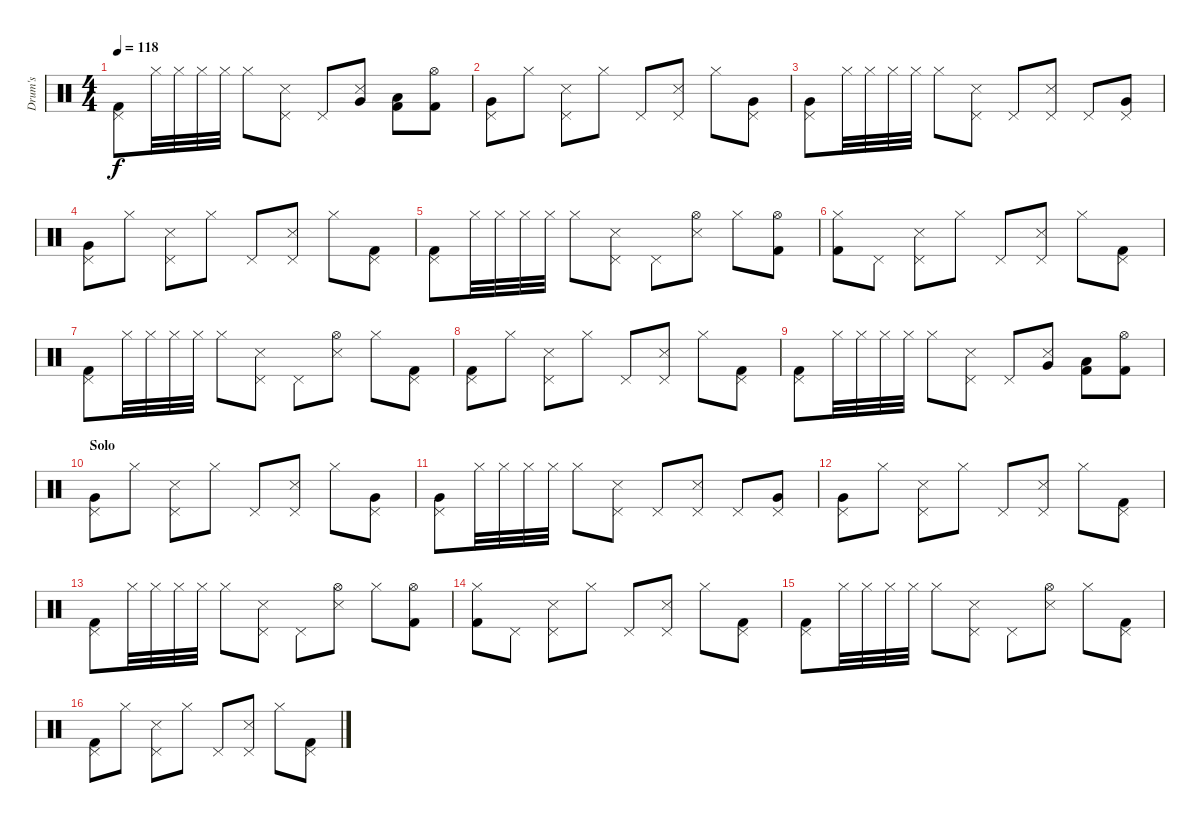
\track ("Drum's" "Drum's") {instrument percussion}
\staff {score}
\articulation defaults
\ts (4 4)
\tempo 118
\clef neutral
\ks c
("Pedal Hi-Hat (hit)" "Kick (hit) 2").8{dy f} "Hi-Hat (closed)".32 "Hi-Hat (closed)".32 "Hi-Hat (closed)".32 "Hi-Hat (closed)".32 "Hi-Hat (closed)".8 ("Pedal Hi-Hat (hit)" "Snare (side stick) 3").8 "Pedal Hi-Hat (hit)".8 ("Snare (side stick) 3" "Very Low Tom (hit)").8 ("Kick (hit) 2" "Low Tom (hit)").8 ("Hi-Hat (open)" "Kick (hit) 2").8 |
("Pedal Hi-Hat (hit)" "Very Low Tom (hit)").8 "Hi-Hat (closed)".8 ("Pedal Hi-Hat (hit)" "Snare (side stick) 3").8 "Hi-Hat (closed)".8 "Pedal Hi-Hat (hit)".8 ("Pedal Hi-Hat (hit)" "Snare (side stick) 3").8 "Hi-Hat (closed)".8 ("Pedal Hi-Hat (hit)" "Very Low Tom (hit)").8 |
("Pedal Hi-Hat (hit)" "Very Low Tom (hit)").8 "Hi-Hat (closed)".32 "Hi-Hat (closed)".32 "Hi-Hat (closed)".32 "Hi-Hat (closed)".32 "Hi-Hat (closed)".8 ("Pedal Hi-Hat (hit)" "Snare (side stick) 3").8 "Pedal Hi-Hat (hit)".8 ("Pedal Hi-Hat (hit)" "Snare (side stick) 3").8 "Pedal Hi-Hat (hit)".8 ("Pedal Hi-Hat (hit)" "Very Low Tom (hit)").8 |
("Pedal Hi-Hat (hit)" "Very Low Tom (hit)").8 "Hi-Hat (closed)".8 ("Pedal Hi-Hat (hit)" "Snare (side stick) 3").8 "Hi-Hat (closed)".8 "Pedal Hi-Hat (hit)".8 ("Pedal Hi-Hat (hit)" "Snare (side stick) 3").8 "Hi-Hat (closed)".8 ("Pedal Hi-Hat (hit)" "Kick (hit) 2").8 |
("Pedal Hi-Hat (hit)" "Kick (hit) 2").8 "Hi-Hat (closed)".32 "Hi-Hat (closed)".32 "Hi-Hat (closed)".32 "Hi-Hat (closed)".32 "Hi-Hat (closed)".8 ("Pedal Hi-Hat (hit)" "Snare (side stick) 3").8 "Pedal Hi-Hat (hit)".8 ("Hi-Hat (open)" "Snare (side stick) 3").8 "Hi-Hat (closed)".8 ("Hi-Hat (open)" "Kick (hit) 2").8 |
("Hi-Hat (closed)" "Kick (hit) 2").8 "Pedal Hi-Hat (hit)".8 ("Pedal Hi-Hat (hit)" "Snare (side stick) 3").8 "Hi-Hat (closed)".8 "Pedal Hi-Hat (hit)".8 ("Pedal Hi-Hat (hit)" "Snare (side stick) 3").8 "Hi-Hat (closed)".8 ("Pedal Hi-Hat (hit)" "Kick (hit) 2").8 |
("Pedal Hi-Hat (hit)" "Kick (hit) 2").8 "Hi-Hat (closed)".32 "Hi-Hat (closed)".32 "Hi-Hat (closed)".32 "Hi-Hat (closed)".32 "Hi-Hat (closed)".8 ("Pedal Hi-Hat (hit)" "Snare (side stick) 3").8 "Pedal Hi-Hat (hit)".8 ("Hi-Hat (open)" "Snare (side stick) 3").8 "Hi-Hat (closed)".8 ("Pedal Hi-Hat (hit)" "Kick (hit) 2").8 |
("Pedal Hi-Hat (hit)" "Kick (hit) 2").8 "Hi-Hat (closed)".8 ("Pedal Hi-Hat (hit)" "Snare (side stick) 3").8 "Hi-Hat (closed)".8 "Pedal Hi-Hat (hit)".8 ("Pedal Hi-Hat (hit)" "Snare (side stick) 3").8 "Hi-Hat (closed)".8 ("Pedal Hi-Hat (hit)" "Kick (hit) 2").8 |
("Pedal Hi-Hat (hit)" "Kick (hit) 2").8 "Hi-Hat (closed)".32 "Hi-Hat (closed)".32 "Hi-Hat (closed)".32 "Hi-Hat (closed)".32 "Hi-Hat (closed)".8 ("Pedal Hi-Hat (hit)" "Snare (side stick) 3").8 "Pedal Hi-Hat (hit)".8 ("Snare (side stick) 3" "Very Low Tom (hit)").8 ("Kick (hit) 2" "Low Tom (hit)").8 ("Hi-Hat (open)" "Kick (hit) 2").8 |
\section ("" "Solo")
("Pedal Hi-Hat (hit)" "Very Low Tom (hit)").8 "Hi-Hat (closed)".8 ("Pedal Hi-Hat (hit)" "Snare (side stick) 3").8 "Hi-Hat (closed)".8 "Pedal Hi-Hat (hit)".8 ("Pedal Hi-Hat (hit)" "Snare (side stick) 3").8 "Hi-Hat (closed)".8 ("Pedal Hi-Hat (hit)" "Very Low Tom (hit)").8 |
("Pedal Hi-Hat (hit)" "Very Low Tom (hit)").8 "Hi-Hat (closed)".32 "Hi-Hat (closed)".32 "Hi-Hat (closed)".32 "Hi-Hat (closed)".32 "Hi-Hat (closed)".8 ("Pedal Hi-Hat (hit)" "Snare (side stick) 3").8 "Pedal Hi-Hat (hit)".8 ("Pedal Hi-Hat (hit)" "Snare (side stick) 3").8 "Pedal Hi-Hat (hit)".8 ("Pedal Hi-Hat (hit)" "Very Low Tom (hit)").8 |
("Pedal Hi-Hat (hit)" "Very Low Tom (hit)").8 "Hi-Hat (closed)".8 ("Pedal Hi-Hat (hit)" "Snare (side stick) 3").8 "Hi-Hat (closed)".8 "Pedal Hi-Hat (hit)".8 ("Pedal Hi-Hat (hit)" "Snare (side stick) 3").8 "Hi-Hat (closed)".8 ("Pedal Hi-Hat (hit)" "Kick (hit) 2").8 |
("Pedal Hi-Hat (hit)" "Kick (hit) 2").8 "Hi-Hat (closed)".32 "Hi-Hat (closed)".32 "Hi-Hat (closed)".32 "Hi-Hat (closed)".32 "Hi-Hat (closed)".8 ("Pedal Hi-Hat (hit)" "Snare (side stick) 3").8 "Pedal Hi-Hat (hit)".8 ("Hi-Hat (open)" "Snare (side stick) 3").8 "Hi-Hat (closed)".8 ("Hi-Hat (open)" "Kick (hit) 2").8 |
("Hi-Hat (closed)" "Kick (hit) 2").8 "Pedal Hi-Hat (hit)".8 ("Pedal Hi-Hat (hit)" "Snare (side stick) 3").8 "Hi-Hat (closed)".8 "Pedal Hi-Hat (hit)".8 ("Pedal Hi-Hat (hit)" "Snare (side stick) 3").8 "Hi-Hat (closed)".8 ("Pedal Hi-Hat (hit)" "Kick (hit) 2").8 |
("Pedal Hi-Hat (hit)" "Kick (hit) 2").8 "Hi-Hat (closed)".32 "Hi-Hat (closed)".32 "Hi-Hat (closed)".32 "Hi-Hat (closed)".32 "Hi-Hat (closed)".8 ("Pedal Hi-Hat (hit)" "Snare (side stick) 3").8 "Pedal Hi-Hat (hit)".8 ("Hi-Hat (open)" "Snare (side stick) 3").8 "Hi-Hat (closed)".8 ("Pedal Hi-Hat (hit)" "Kick (hit) 2").8 |
("Pedal Hi-Hat (hit)" "Kick (hit) 2").8 "Hi-Hat (closed)".8 ("Pedal Hi-Hat (hit)" "Snare (side stick) 3").8 "Hi-Hat (closed)".8 "Pedal Hi-Hat (hit)".8 ("Pedal Hi-Hat (hit)" "Snare (side stick) 3").8 "Hi-Hat (closed)".8 ("Pedal Hi-Hat (hit)" "Kick (hit) 2").8
